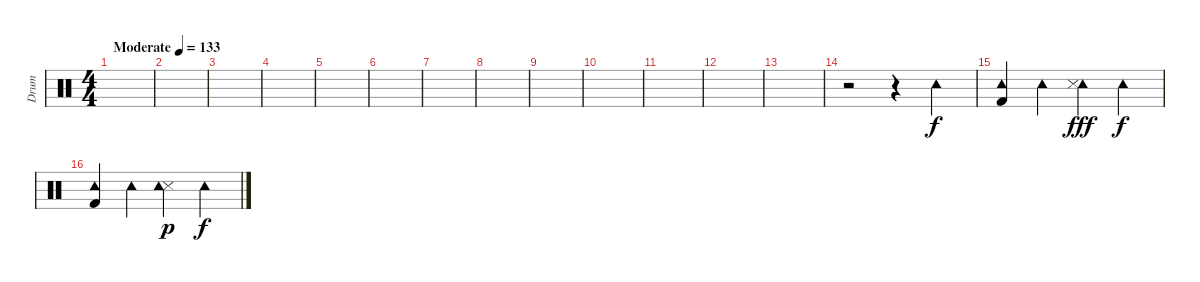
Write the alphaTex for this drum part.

\track ("Drum" "Drum") {instrument percussion}
\staff {score}
\articulation defaults
\ts (4 4)
\tempo (133 "Moderate")
\clef neutral
\ks c
|
|
|
|
|
|
|
|
|
|
|
|
|
r.2 r.4 "Tambourine (hit)".4 |
("Tambourine (hit)" "Kick (hit) 2").4 "Tambourine (hit)".4 ("Tambourine (hit)" "Snare (side stick) 3").4{dy fff} "Tambourine (hit)".4{dy f} |
("Tambourine (hit)" "Kick (hit) 2").4 "Tambourine (hit)".4 ("Snare (side stick) 3" "Tambourine (hit)").4{dy p} "Tambourine (hit)".4{dy f}
